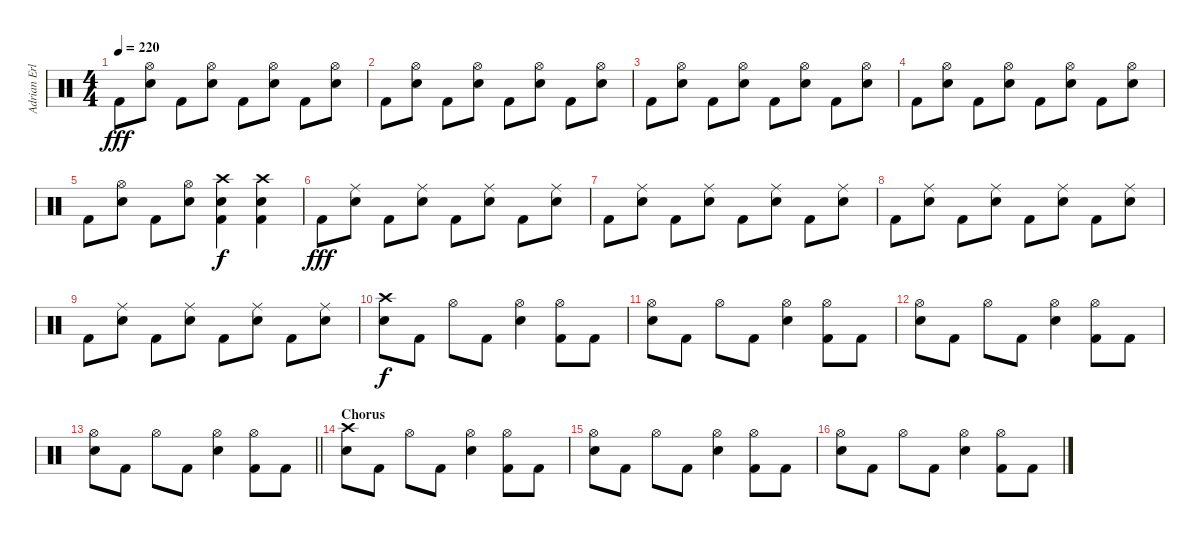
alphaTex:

\track ("Adrian Erlandsson" "Adrian Erl") {instrument percussion}
\staff {score}
\articulation defaults
\ts (4 4)
\tempo 220
\clef neutral
\ks c "Kick (hit) 2".8{dy fff}
("Hi-Hat (open)" "Electric Snare (hit)").8 "Kick (hit) 2".8 ("Hi-Hat (open)" "Electric Snare (hit)").8 "Kick (hit) 2".8 ("Hi-Hat (open)" "Electric Snare (hit)").8 "Kick (hit) 2".8 ("Hi-Hat (open)" "Electric Snare (hit)").8 |
"Kick (hit) 2".8 ("Hi-Hat (open)" "Electric Snare (hit)").8 "Kick (hit) 2".8 ("Hi-Hat (open)" "Electric Snare (hit)").8 "Kick (hit) 2".8 ("Hi-Hat (open)" "Electric Snare (hit)").8 "Kick (hit) 2".8 ("Hi-Hat (open)" "Electric Snare (hit)").8 |
"Kick (hit) 2".8 ("Hi-Hat (open)" "Electric Snare (hit)").8 "Kick (hit) 2".8 ("Hi-Hat (open)" "Electric Snare (hit)").8 "Kick (hit) 2".8 ("Hi-Hat (open)" "Electric Snare (hit)").8 "Kick (hit) 2".8 ("Hi-Hat (open)" "Electric Snare (hit)").8 |
"Kick (hit) 2".8 ("Hi-Hat (open)" "Electric Snare (hit)").8 "Kick (hit) 2".8 ("Hi-Hat (open)" "Electric Snare (hit)").8 "Kick (hit) 2".8 ("Hi-Hat (open)" "Electric Snare (hit)").8 "Kick (hit) 2".8 ("Hi-Hat (open)" "Electric Snare (hit)").8 |
"Kick (hit) 2".8 ("Hi-Hat (open)" "Electric Snare (hit)").8 "Kick (hit) 2".8 ("Hi-Hat (open)" "Electric Snare (hit)").8 ("Crash high (hit)" "Electric Snare (hit)" "Kick (hit) 2").4{dy f} ("Crash high (hit)" "Electric Snare (hit)" "Kick (hit) 2").4 |
"Kick (hit) 2".8{dy fff} ("Ride (middle)" "Electric Snare (hit)").8 "Kick (hit) 2".8 ("Ride (middle)" "Electric Snare (hit)").8 "Kick (hit) 2".8 ("Ride (middle)" "Electric Snare (hit)").8 "Kick (hit) 2".8 ("Ride (middle)" "Electric Snare (hit)").8 |
"Kick (hit) 2".8 ("Ride (middle)" "Electric Snare (hit)").8 "Kick (hit) 2".8 ("Ride (middle)" "Electric Snare (hit)").8 "Kick (hit) 2".8 ("Ride (middle)" "Electric Snare (hit)").8 "Kick (hit) 2".8 ("Ride (middle)" "Electric Snare (hit)").8 |
"Kick (hit) 2".8 ("Ride (middle)" "Electric Snare (hit)").8 "Kick (hit) 2".8 ("Ride (middle)" "Electric Snare (hit)").8 "Kick (hit) 2".8 ("Ride (middle)" "Electric Snare (hit)").8 "Kick (hit) 2".8 ("Ride (middle)" "Electric Snare (hit)").8 |
"Kick (hit) 2".8 ("Ride (middle)" "Electric Snare (hit)").8 "Kick (hit) 2".8 ("Ride (middle)" "Electric Snare (hit)").8 "Kick (hit) 2".8 ("Ride (middle)" "Electric Snare (hit)").8 "Kick (hit) 2".8 ("Ride (middle)" "Electric Snare (hit)").8 |
("Crash high (hit)" "Electric Snare (hit)").8{dy f} "Kick (hit) 2".8 "Hi-Hat (open)".8 "Kick (hit) 2".8 ("Hi-Hat (open)" "Electric Snare (hit)").4 ("Hi-Hat (open)" "Kick (hit) 2").8 "Kick (hit) 2".8 |
("Hi-Hat (open)" "Electric Snare (hit)").8 "Kick (hit) 2".8 "Hi-Hat (open)".8 "Kick (hit) 2".8 ("Hi-Hat (open)" "Electric Snare (hit)").4 ("Hi-Hat (open)" "Kick (hit) 2").8 "Kick (hit) 2".8 |
("Hi-Hat (open)" "Electric Snare (hit)").8 "Kick (hit) 2".8 "Hi-Hat (open)".8 "Kick (hit) 2".8 ("Hi-Hat (open)" "Electric Snare (hit)").4 ("Hi-Hat (open)" "Kick (hit) 2").8 "Kick (hit) 2".8 |
\barLineRight lightlight
("Hi-Hat (open)" "Electric Snare (hit)").8 "Kick (hit) 2".8 "Hi-Hat (open)".8 "Kick (hit) 2".8 ("Hi-Hat (open)" "Electric Snare (hit)").4 ("Hi-Hat (open)" "Kick (hit) 2").8 "Kick (hit) 2".8 |
\section ("" "Chorus")
("Crash high (hit)" "Electric Snare (hit)").8 "Kick (hit) 2".8 "Hi-Hat (open)".8 "Kick (hit) 2".8 ("Hi-Hat (open)" "Electric Snare (hit)").4 ("Hi-Hat (open)" "Kick (hit) 2").8 "Kick (hit) 2".8 |
("Hi-Hat (open)" "Electric Snare (hit)").8 "Kick (hit) 2".8 "Hi-Hat (open)".8 "Kick (hit) 2".8 ("Hi-Hat (open)" "Electric Snare (hit)").4 ("Hi-Hat (open)" "Kick (hit) 2").8 "Kick (hit) 2".8 |
("Hi-Hat (open)" "Electric Snare (hit)").8 "Kick (hit) 2".8 "Hi-Hat (open)".8 "Kick (hit) 2".8 ("Hi-Hat (open)" "Electric Snare (hit)").4 ("Hi-Hat (open)" "Kick (hit) 2").8 "Kick (hit) 2".8
